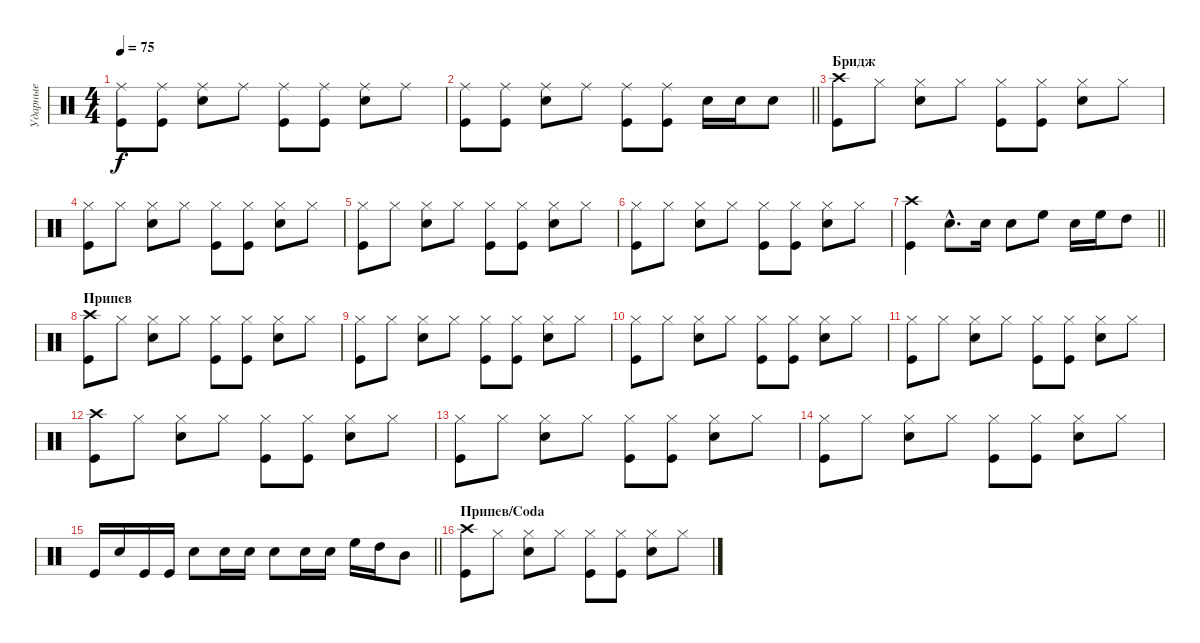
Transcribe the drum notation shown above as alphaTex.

\track ("Ударные" "Ударные") {instrument percussion}
\staff {score}
\articulation defaults
\ts (4 4)
\tempo 75
\clef neutral
\ks c
("Ride (middle)" "Kick (hit)").8{dy f} ("Ride (middle)" "Kick (hit)").8 ("Ride (middle)" "Snare (hit) 2").8 "Ride (middle)".8 ("Ride (middle)" "Kick (hit)").8 ("Ride (middle)" "Kick (hit)").8 ("Ride (middle)" "Snare (hit) 2").8 "Ride (middle)".8 |
\barLineRight lightlight
("Ride (middle)" "Kick (hit)").8 ("Ride (middle)" "Kick (hit)").8 ("Ride (middle)" "Snare (hit) 2").8 "Ride (middle)".8 ("Ride (middle)" "Kick (hit)").8 ("Ride (middle)" "Kick (hit)").8 "Snare (hit) 2".16 "Snare (hit) 2".16 "Snare (hit) 2".8 |
\section ("" "Бридж")
("Crash high (hit)" "Kick (hit)").8 "Hi-Hat (closed)".8 ("Hi-Hat (closed)" "Snare (hit) 2").8 "Hi-Hat (closed)".8 ("Hi-Hat (closed)" "Kick (hit)").8 ("Hi-Hat (closed)" "Kick (hit)").8 ("Hi-Hat (closed)" "Snare (hit) 2").8 "Hi-Hat (closed)".8 |
("Hi-Hat (closed)" "Kick (hit)").8 "Hi-Hat (closed)".8 ("Hi-Hat (closed)" "Snare (hit) 2").8 "Hi-Hat (closed)".8 ("Hi-Hat (closed)" "Kick (hit)").8 ("Hi-Hat (closed)" "Kick (hit)").8 ("Hi-Hat (closed)" "Snare (hit) 2").8 "Hi-Hat (closed)".8 |
("Hi-Hat (closed)" "Kick (hit)").8 "Hi-Hat (closed)".8 ("Hi-Hat (closed)" "Snare (hit) 2").8 "Hi-Hat (closed)".8 ("Hi-Hat (closed)" "Kick (hit)").8 ("Hi-Hat (closed)" "Kick (hit)").8 ("Hi-Hat (closed)" "Snare (hit) 2").8 "Hi-Hat (closed)".8 |
("Hi-Hat (closed)" "Kick (hit)").8 "Hi-Hat (closed)".8 ("Hi-Hat (closed)" "Snare (hit) 2").8 "Hi-Hat (closed)".8 ("Hi-Hat (closed)" "Kick (hit)").8 ("Hi-Hat (closed)" "Kick (hit)").8 ("Hi-Hat (closed)" "Snare (hit) 2").8 "Hi-Hat (closed)".8 |
\barLineRight lightlight
("Crash high (hit)" "Kick (hit)").4 "Snare (hit) 2"{hac}.8{d} "Snare (hit) 2".16 "Snare (hit) 2".8 "High Floor Tom (hit)".8 "Snare (hit) 2".16 "High Floor Tom (hit)".16 "High Tom (hit)".8 |
\section ("" "Припев")
("Crash high (hit)" "Kick (hit)").8 "Hi-Hat (closed)".8 ("Hi-Hat (closed)" "Snare (hit) 2").8 "Hi-Hat (closed)".8 ("Hi-Hat (closed)" "Kick (hit)").8 ("Hi-Hat (closed)" "Kick (hit)").8 ("Hi-Hat (closed)" "Snare (hit) 2").8 "Hi-Hat (closed)".8 |
("Hi-Hat (closed)" "Kick (hit)").8 "Hi-Hat (closed)".8 ("Hi-Hat (closed)" "Snare (hit) 2").8 "Hi-Hat (closed)".8 ("Hi-Hat (closed)" "Kick (hit)").8 ("Hi-Hat (closed)" "Kick (hit)").8 ("Hi-Hat (closed)" "Snare (hit) 2").8 "Hi-Hat (closed)".8 |
("Hi-Hat (closed)" "Kick (hit)").8 "Hi-Hat (closed)".8 ("Hi-Hat (closed)" "Snare (hit) 2").8 "Hi-Hat (closed)".8 ("Hi-Hat (closed)" "Kick (hit)").8 ("Hi-Hat (closed)" "Kick (hit)").8 ("Hi-Hat (closed)" "Snare (hit) 2").8 "Hi-Hat (closed)".8 |
("Hi-Hat (closed)" "Kick (hit)").8 "Hi-Hat (closed)".8 ("Hi-Hat (closed)" "Snare (hit) 2").8 "Hi-Hat (closed)".8 ("Hi-Hat (closed)" "Kick (hit)").8 ("Hi-Hat (closed)" "Kick (hit)").8 ("Hi-Hat (closed)" "Snare (hit) 2").8 "Hi-Hat (closed)".8 |
("Crash high (hit)" "Kick (hit)").8 "Hi-Hat (closed)".8 ("Hi-Hat (closed)" "Snare (hit) 2").8 "Hi-Hat (closed)".8 ("Hi-Hat (closed)" "Kick (hit)").8 ("Hi-Hat (closed)" "Kick (hit)").8 ("Hi-Hat (closed)" "Snare (hit) 2").8 "Hi-Hat (closed)".8 |
("Hi-Hat (closed)" "Kick (hit)").8 "Hi-Hat (closed)".8 ("Hi-Hat (closed)" "Snare (hit) 2").8 "Hi-Hat (closed)".8 ("Hi-Hat (closed)" "Kick (hit)").8 ("Hi-Hat (closed)" "Kick (hit)").8 ("Hi-Hat (closed)" "Snare (hit) 2").8 "Hi-Hat (closed)".8 |
("Hi-Hat (closed)" "Kick (hit)").8 "Hi-Hat (closed)".8 ("Hi-Hat (closed)" "Snare (hit) 2").8 "Hi-Hat (closed)".8 ("Hi-Hat (closed)" "Kick (hit)").8 ("Hi-Hat (closed)" "Kick (hit)").8 ("Hi-Hat (closed)" "Snare (hit) 2").8 "Hi-Hat (closed)".8 |
\barLineRight lightlight "Kick (hit)".16 "Snare (hit) 2".16 "Kick (hit)".16 "Kick (hit)".16 "Snare (hit) 2".8 "Snare (hit) 2".16 "Snare (hit) 2".16 "Snare (hit) 2".8 "Snare (hit) 2".16 "Snare (hit) 2".16 "High Floor Tom (hit)".16 "High Tom (hit)".16 "Mid Tom (hit)".8
|
\section ("" "Припев/Coda")
("Crash high (hit)" "Kick (hit)").8 "Hi-Hat (closed)".8 ("Hi-Hat (closed)" "Snare (hit) 2").8 "Hi-Hat (closed)".8 ("Hi-Hat (closed)" "Kick (hit)").8 ("Hi-Hat (closed)" "Kick (hit)").8 ("Hi-Hat (closed)" "Snare (hit) 2").8 "Hi-Hat (closed)".8
